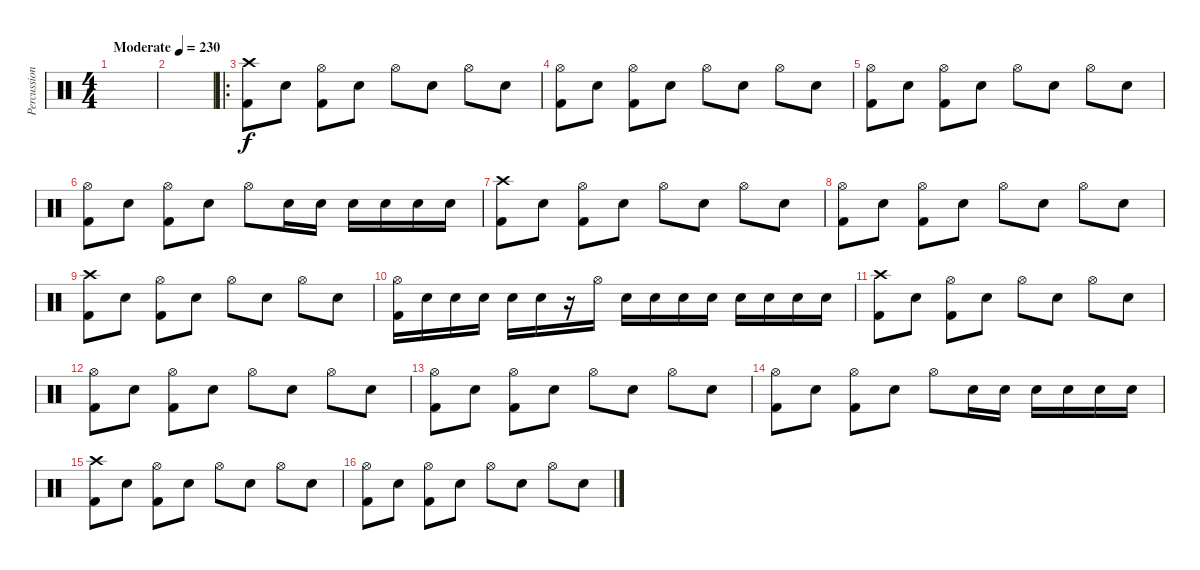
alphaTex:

\track ("Percussion" "Percussion") {instrument percussion}
\staff {score}
\articulation defaults
\ts (4 4)
\tempo (230 "Moderate")
\clef neutral
\ks c
|
|
\ro
("Crash high (hit)" "Kick (hit) 2").8 "Electric Snare (hit)".8 ("Hi-Hat (open)" "Kick (hit) 2").8 "Electric Snare (hit)".8 "Hi-Hat (open)".8 "Electric Snare (hit)".8 "Hi-Hat (open)".8 "Electric Snare (hit)".8 |
("Hi-Hat (open)" "Kick (hit) 2").8 "Electric Snare (hit)".8 ("Hi-Hat (open)" "Kick (hit) 2").8 "Electric Snare (hit)".8 "Hi-Hat (open)".8 "Electric Snare (hit)".8 "Hi-Hat (open)".8 "Electric Snare (hit)".8 |
("Hi-Hat (open)" "Kick (hit) 2").8 "Electric Snare (hit)".8 ("Hi-Hat (open)" "Kick (hit) 2").8 "Electric Snare (hit)".8 "Hi-Hat (open)".8 "Electric Snare (hit)".8 "Hi-Hat (open)".8 "Electric Snare (hit)".8 |
("Hi-Hat (open)" "Kick (hit) 2").8 "Electric Snare (hit)".8 ("Hi-Hat (open)" "Kick (hit) 2").8 "Electric Snare (hit)".8 "Hi-Hat (open)".8 "Electric Snare (hit)".16 "Electric Snare (hit)".16 "Electric Snare (hit)".16 "Electric Snare (hit)".16 "Electric Snare (hit)".16 "Electric Snare (hit)".16 |
("Crash high (hit)" "Kick (hit) 2").8 "Electric Snare (hit)".8 ("Hi-Hat (open)" "Kick (hit) 2").8 "Electric Snare (hit)".8 "Hi-Hat (open)".8 "Electric Snare (hit)".8 "Hi-Hat (open)".8 "Electric Snare (hit)".8 |
("Hi-Hat (open)" "Kick (hit) 2").8 "Electric Snare (hit)".8 ("Hi-Hat (open)" "Kick (hit) 2").8 "Electric Snare (hit)".8 "Hi-Hat (open)".8 "Electric Snare (hit)".8 "Hi-Hat (open)".8 "Electric Snare (hit)".8 |
("Crash high (hit)" "Kick (hit) 2").8 "Electric Snare (hit)".8 ("Hi-Hat (open)" "Kick (hit) 2").8 "Electric Snare (hit)".8 "Hi-Hat (open)".8 "Electric Snare (hit)".8 "Hi-Hat (open)".8 "Electric Snare (hit)".8 |
("Hi-Hat (open)" "Kick (hit) 2").16 "Electric Snare (hit)".16 "Electric Snare (hit)".16 "Electric Snare (hit)".16 "Electric Snare (hit)".16 "Electric Snare (hit)".16 r.16 "Hi-Hat (open)".16 "Electric Snare (hit)".16 "Electric Snare (hit)".16 "Electric Snare (hit)".16 "Electric Snare (hit)".16 "Electric Snare (hit)".16 "Electric Snare (hit)".16 "Electric Snare (hit)".16 "Electric Snare (hit)".16 |
("Crash high (hit)" "Kick (hit) 2").8 "Electric Snare (hit)".8 ("Hi-Hat (open)" "Kick (hit) 2").8 "Electric Snare (hit)".8 "Hi-Hat (open)".8 "Electric Snare (hit)".8 "Hi-Hat (open)".8 "Electric Snare (hit)".8 |
("Hi-Hat (open)" "Kick (hit) 2").8 "Electric Snare (hit)".8 ("Hi-Hat (open)" "Kick (hit) 2").8 "Electric Snare (hit)".8 "Hi-Hat (open)".8 "Electric Snare (hit)".8 "Hi-Hat (open)".8 "Electric Snare (hit)".8 |
("Hi-Hat (open)" "Kick (hit) 2").8 "Electric Snare (hit)".8 ("Hi-Hat (open)" "Kick (hit) 2").8 "Electric Snare (hit)".8 "Hi-Hat (open)".8 "Electric Snare (hit)".8 "Hi-Hat (open)".8 "Electric Snare (hit)".8 |
("Hi-Hat (open)" "Kick (hit) 2").8 "Electric Snare (hit)".8 ("Hi-Hat (open)" "Kick (hit) 2").8 "Electric Snare (hit)".8 "Hi-Hat (open)".8 "Electric Snare (hit)".16 "Electric Snare (hit)".16 "Electric Snare (hit)".16 "Electric Snare (hit)".16 "Electric Snare (hit)".16 "Electric Snare (hit)".16 |
("Crash high (hit)" "Kick (hit) 2").8 "Electric Snare (hit)".8 ("Hi-Hat (open)" "Kick (hit) 2").8 "Electric Snare (hit)".8 "Hi-Hat (open)".8 "Electric Snare (hit)".8 "Hi-Hat (open)".8 "Electric Snare (hit)".8 |
("Hi-Hat (open)" "Kick (hit) 2").8 "Electric Snare (hit)".8 ("Hi-Hat (open)" "Kick (hit) 2").8 "Electric Snare (hit)".8 "Hi-Hat (open)".8 "Electric Snare (hit)".8 "Hi-Hat (open)".8 "Electric Snare (hit)".8
